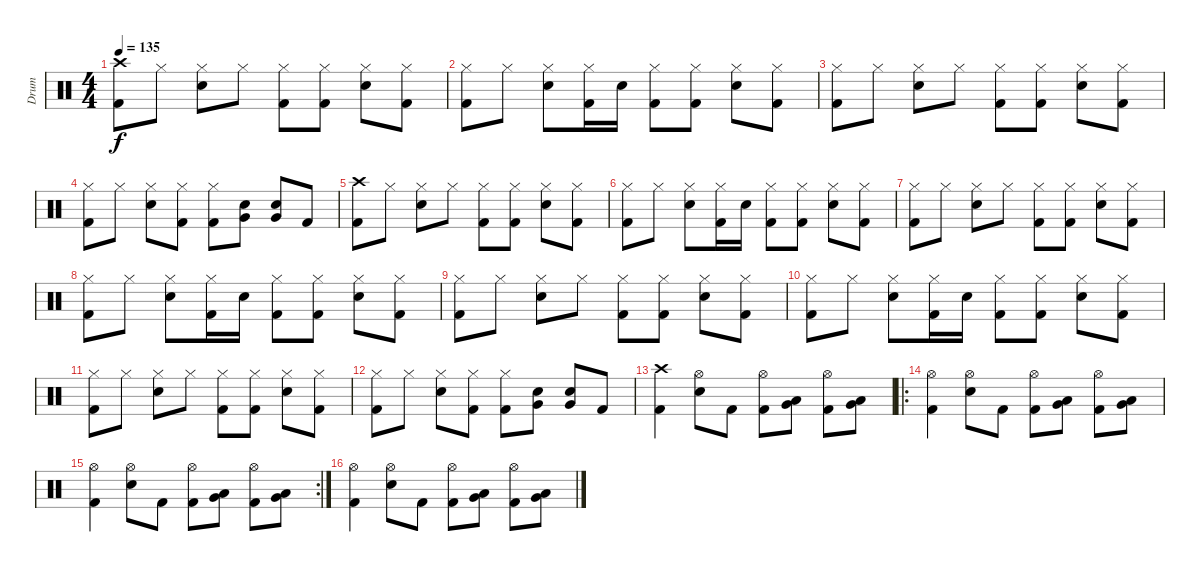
\track ("Drum" "Drum") {instrument percussion}
\staff {score}
\articulation defaults
\ts (4 4)
\tempo 135
\clef neutral
\ks c
("Crash high (hit)" "Kick (hit) 2").8{dy f} "Hi-Hat (closed)".8 ("Hi-Hat (closed)" "Snare (hit) 2").8 "Hi-Hat (closed)".8 ("Hi-Hat (closed)" "Kick (hit) 2").8 ("Hi-Hat (closed)" "Kick (hit) 2").8 ("Hi-Hat (closed)" "Snare (hit) 2").8 ("Hi-Hat (closed)" "Kick (hit) 2").8 |
("Hi-Hat (closed)" "Kick (hit) 2").8 "Hi-Hat (closed)".8 ("Hi-Hat (closed)" "Snare (hit) 2").8 ("Hi-Hat (closed)" "Kick (hit) 2").16 "Snare (hit) 2".16 ("Hi-Hat (closed)" "Kick (hit) 2").8 ("Hi-Hat (closed)" "Kick (hit) 2").8 ("Hi-Hat (closed)" "Snare (hit) 2").8 ("Hi-Hat (closed)" "Kick (hit) 2").8 |
("Hi-Hat (closed)" "Kick (hit) 2").8 "Hi-Hat (closed)".8 ("Hi-Hat (closed)" "Snare (hit) 2").8 "Hi-Hat (closed)".8 ("Hi-Hat (closed)" "Kick (hit) 2").8 ("Hi-Hat (closed)" "Kick (hit) 2").8 ("Hi-Hat (closed)" "Snare (hit) 2").8 ("Hi-Hat (closed)" "Kick (hit) 2").8 |
("Hi-Hat (closed)" "Kick (hit) 2").8 "Hi-Hat (closed)".8 ("Hi-Hat (closed)" "Snare (hit) 2").8 ("Hi-Hat (closed)" "Kick (hit) 2").8 ("Hi-Hat (closed)" "Kick (hit) 2").8 ("Very Low Tom (hit)" "Snare (hit) 2").8 ("Very Low Tom (hit)" "Snare (hit) 2").8 "Kick (hit) 2".8 |
("Crash high (hit)" "Kick (hit) 2").8 "Hi-Hat (closed)".8 ("Hi-Hat (closed)" "Snare (hit) 2").8 "Hi-Hat (closed)".8 ("Hi-Hat (closed)" "Kick (hit) 2").8 ("Hi-Hat (closed)" "Kick (hit) 2").8 ("Hi-Hat (closed)" "Snare (hit) 2").8 ("Hi-Hat (closed)" "Kick (hit) 2").8 |
("Hi-Hat (closed)" "Kick (hit) 2").8 "Hi-Hat (closed)".8 ("Hi-Hat (closed)" "Snare (hit) 2").8 ("Hi-Hat (closed)" "Kick (hit) 2").16 "Snare (hit) 2".16 ("Hi-Hat (closed)" "Kick (hit) 2").8 ("Hi-Hat (closed)" "Kick (hit) 2").8 ("Hi-Hat (closed)" "Snare (hit) 2").8 ("Hi-Hat (closed)" "Kick (hit) 2").8 |
("Hi-Hat (closed)" "Kick (hit) 2").8 "Hi-Hat (closed)".8 ("Hi-Hat (closed)" "Snare (hit) 2").8 "Hi-Hat (closed)".8 ("Hi-Hat (closed)" "Kick (hit) 2").8 ("Hi-Hat (closed)" "Kick (hit) 2").8 ("Hi-Hat (closed)" "Snare (hit) 2").8 ("Hi-Hat (closed)" "Kick (hit) 2").8 |
("Hi-Hat (closed)" "Kick (hit) 2").8 "Hi-Hat (closed)".8 ("Hi-Hat (closed)" "Snare (hit) 2").8 ("Hi-Hat (closed)" "Kick (hit) 2").16 "Snare (hit) 2".16 ("Hi-Hat (closed)" "Kick (hit) 2").8 ("Hi-Hat (closed)" "Kick (hit) 2").8 ("Hi-Hat (closed)" "Snare (hit) 2").8 ("Hi-Hat (closed)" "Kick (hit) 2").8 |
("Hi-Hat (closed)" "Kick (hit) 2").8 "Hi-Hat (closed)".8 ("Hi-Hat (closed)" "Snare (hit) 2").8 "Hi-Hat (closed)".8 ("Hi-Hat (closed)" "Kick (hit) 2").8 ("Hi-Hat (closed)" "Kick (hit) 2").8 ("Hi-Hat (closed)" "Snare (hit) 2").8 ("Hi-Hat (closed)" "Kick (hit) 2").8 |
("Hi-Hat (closed)" "Kick (hit) 2").8 "Hi-Hat (closed)".8 ("Hi-Hat (closed)" "Snare (hit) 2").8 ("Hi-Hat (closed)" "Kick (hit) 2").16 "Snare (hit) 2".16 ("Hi-Hat (closed)" "Kick (hit) 2").8 ("Hi-Hat (closed)" "Kick (hit) 2").8 ("Hi-Hat (closed)" "Snare (hit) 2").8 ("Hi-Hat (closed)" "Kick (hit) 2").8 |
("Hi-Hat (closed)" "Kick (hit) 2").8 "Hi-Hat (closed)".8 ("Hi-Hat (closed)" "Snare (hit) 2").8 "Hi-Hat (closed)".8 ("Hi-Hat (closed)" "Kick (hit) 2").8 ("Hi-Hat (closed)" "Kick (hit) 2").8 ("Hi-Hat (closed)" "Snare (hit) 2").8 ("Hi-Hat (closed)" "Kick (hit) 2").8 |
("Hi-Hat (closed)" "Kick (hit) 2").8 "Hi-Hat (closed)".8 ("Hi-Hat (closed)" "Snare (hit) 2").8 ("Hi-Hat (closed)" "Kick (hit) 2").8 ("Hi-Hat (closed)" "Kick (hit) 2").8 ("Very Low Tom (hit)" "Snare (hit) 2").8 ("Very Low Tom (hit)" "Snare (hit) 2").8 "Kick (hit) 2".8 |
("Crash high (hit)" "Kick (hit) 2").4 ("Hi-Hat (open)" "Snare (hit) 2").8 "Kick (hit) 2".8 ("Hi-Hat (open)" "Kick (hit) 2").8 ("Low Tom (hit)" "Very Low Tom (hit)").8 ("Hi-Hat (open)" "Kick (hit) 2").8 ("Low Tom (hit)" "Very Low Tom (hit)").8 |
\ro
("Hi-Hat (open)" "Kick (hit) 2").4 ("Hi-Hat (open)" "Snare (hit) 2").8 "Kick (hit) 2".8 ("Hi-Hat (open)" "Kick (hit) 2").8 ("Low Tom (hit)" "Very Low Tom (hit)").8 ("Hi-Hat (open)" "Kick (hit) 2").8 ("Low Tom (hit)" "Very Low Tom (hit)").8 |
\rc 2
("Hi-Hat (open)" "Kick (hit) 2").4 ("Hi-Hat (open)" "Snare (hit) 2").8 "Kick (hit) 2".8 ("Hi-Hat (open)" "Kick (hit) 2").8 ("Low Tom (hit)" "Very Low Tom (hit)").8 ("Hi-Hat (open)" "Kick (hit) 2").8 ("Low Tom (hit)" "Very Low Tom (hit)").8 |
("Hi-Hat (open)" "Kick (hit) 2").4 ("Hi-Hat (open)" "Snare (hit) 2").8 "Kick (hit) 2".8 ("Hi-Hat (open)" "Kick (hit) 2").8 ("Low Tom (hit)" "Very Low Tom (hit)").8 ("Hi-Hat (open)" "Kick (hit) 2").8 ("Low Tom (hit)" "Very Low Tom (hit)").8
